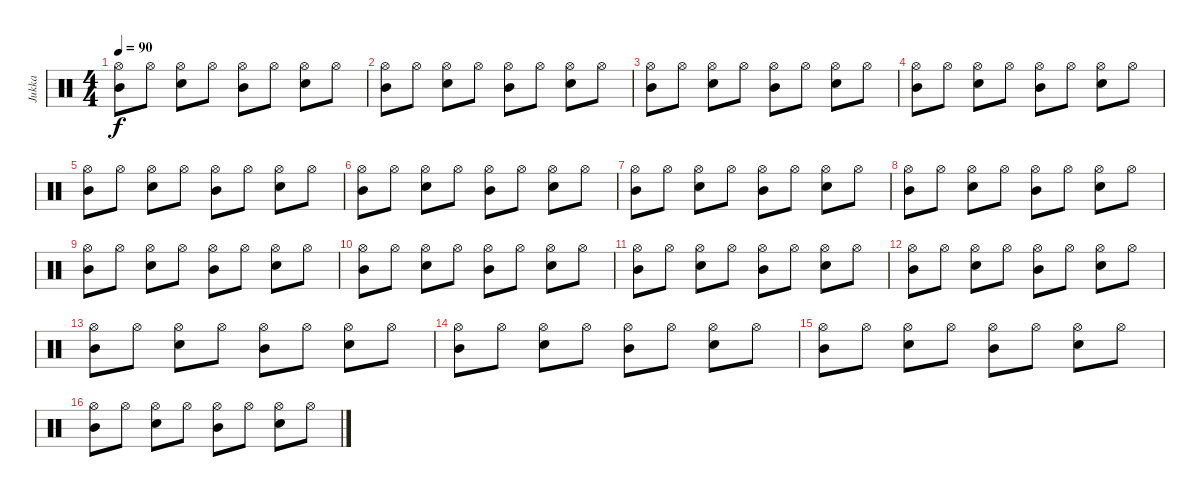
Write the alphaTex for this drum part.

\track ("Jukka" "Jukka") {instrument percussion}
\staff {score}
\articulation defaults
\ts (4 4)
\tempo 90
\clef neutral
\ks c
("Mid Tom (hit)" "Hi-Hat (open)").8{dy f} "Hi-Hat (open)".8 ("Hi-Hat (open)" "Snare (hit) 2").8 "Hi-Hat (open)".8 ("Hi-Hat (open)" "Mid Tom (hit)").8 "Hi-Hat (open)".8 ("Hi-Hat (open)" "Snare (hit) 2").8 "Hi-Hat (open)".8 |
("Mid Tom (hit)" "Hi-Hat (open)").8 "Hi-Hat (open)".8 ("Hi-Hat (open)" "Snare (hit) 2").8 "Hi-Hat (open)".8 ("Hi-Hat (open)" "Mid Tom (hit)").8 "Hi-Hat (open)".8 ("Hi-Hat (open)" "Snare (hit) 2").8 "Hi-Hat (open)".8 |
("Mid Tom (hit)" "Hi-Hat (open)").8 "Hi-Hat (open)".8 ("Hi-Hat (open)" "Snare (hit) 2").8 "Hi-Hat (open)".8 ("Hi-Hat (open)" "Mid Tom (hit)").8 "Hi-Hat (open)".8 ("Hi-Hat (open)" "Snare (hit) 2").8 "Hi-Hat (open)".8 |
("Mid Tom (hit)" "Hi-Hat (open)").8 "Hi-Hat (open)".8 ("Hi-Hat (open)" "Snare (hit) 2").8 "Hi-Hat (open)".8 ("Hi-Hat (open)" "Mid Tom (hit)").8 "Hi-Hat (open)".8 ("Hi-Hat (open)" "Snare (hit) 2").8 "Hi-Hat (open)".8 |
("Mid Tom (hit)" "Hi-Hat (open)").8 "Hi-Hat (open)".8 ("Hi-Hat (open)" "Snare (hit) 2").8 "Hi-Hat (open)".8 ("Hi-Hat (open)" "Mid Tom (hit)").8 "Hi-Hat (open)".8 ("Hi-Hat (open)" "Snare (hit) 2").8 "Hi-Hat (open)".8 |
("Mid Tom (hit)" "Hi-Hat (open)").8 "Hi-Hat (open)".8 ("Hi-Hat (open)" "Snare (hit) 2").8 "Hi-Hat (open)".8 ("Hi-Hat (open)" "Mid Tom (hit)").8 "Hi-Hat (open)".8 ("Hi-Hat (open)" "Snare (hit) 2").8 "Hi-Hat (open)".8 |
("Mid Tom (hit)" "Hi-Hat (open)").8 "Hi-Hat (open)".8 ("Hi-Hat (open)" "Snare (hit) 2").8 "Hi-Hat (open)".8 ("Hi-Hat (open)" "Mid Tom (hit)").8 "Hi-Hat (open)".8 ("Hi-Hat (open)" "Snare (hit) 2").8 "Hi-Hat (open)".8 |
("Mid Tom (hit)" "Hi-Hat (open)").8 "Hi-Hat (open)".8 ("Hi-Hat (open)" "Snare (hit) 2").8 "Hi-Hat (open)".8 ("Hi-Hat (open)" "Mid Tom (hit)").8 "Hi-Hat (open)".8 ("Hi-Hat (open)" "Snare (hit) 2").8 "Hi-Hat (open)".8 |
("Mid Tom (hit)" "Hi-Hat (open)").8 "Hi-Hat (open)".8 ("Hi-Hat (open)" "Snare (hit) 2").8 "Hi-Hat (open)".8 ("Hi-Hat (open)" "Mid Tom (hit)").8 "Hi-Hat (open)".8 ("Hi-Hat (open)" "Snare (hit) 2").8 "Hi-Hat (open)".8 |
("Mid Tom (hit)" "Hi-Hat (open)").8 "Hi-Hat (open)".8 ("Hi-Hat (open)" "Snare (hit) 2").8 "Hi-Hat (open)".8 ("Hi-Hat (open)" "Mid Tom (hit)").8 "Hi-Hat (open)".8 ("Hi-Hat (open)" "Snare (hit) 2").8 "Hi-Hat (open)".8 |
("Mid Tom (hit)" "Hi-Hat (open)").8 "Hi-Hat (open)".8 ("Hi-Hat (open)" "Snare (hit) 2").8 "Hi-Hat (open)".8 ("Hi-Hat (open)" "Mid Tom (hit)").8 "Hi-Hat (open)".8 ("Hi-Hat (open)" "Snare (hit) 2").8 "Hi-Hat (open)".8 |
("Mid Tom (hit)" "Hi-Hat (open)").8 "Hi-Hat (open)".8 ("Hi-Hat (open)" "Snare (hit) 2").8 "Hi-Hat (open)".8 ("Hi-Hat (open)" "Mid Tom (hit)").8 "Hi-Hat (open)".8 ("Hi-Hat (open)" "Snare (hit) 2").8 "Hi-Hat (open)".8 |
("Mid Tom (hit)" "Hi-Hat (open)").8 "Hi-Hat (open)".8 ("Hi-Hat (open)" "Snare (hit) 2").8 "Hi-Hat (open)".8 ("Hi-Hat (open)" "Mid Tom (hit)").8 "Hi-Hat (open)".8 ("Hi-Hat (open)" "Snare (hit) 2").8 "Hi-Hat (open)".8 |
("Mid Tom (hit)" "Hi-Hat (open)").8 "Hi-Hat (open)".8 ("Hi-Hat (open)" "Snare (hit) 2").8 "Hi-Hat (open)".8 ("Hi-Hat (open)" "Mid Tom (hit)").8 "Hi-Hat (open)".8 ("Hi-Hat (open)" "Snare (hit) 2").8 "Hi-Hat (open)".8 |
("Mid Tom (hit)" "Hi-Hat (open)").8 "Hi-Hat (open)".8 ("Hi-Hat (open)" "Snare (hit) 2").8 "Hi-Hat (open)".8 ("Hi-Hat (open)" "Mid Tom (hit)").8 "Hi-Hat (open)".8 ("Hi-Hat (open)" "Snare (hit) 2").8 "Hi-Hat (open)".8 |
("Mid Tom (hit)" "Hi-Hat (open)").8 "Hi-Hat (open)".8 ("Hi-Hat (open)" "Snare (hit) 2").8 "Hi-Hat (open)".8 ("Hi-Hat (open)" "Mid Tom (hit)").8 "Hi-Hat (open)".8 ("Hi-Hat (open)" "Snare (hit) 2").8 "Hi-Hat (open)".8
